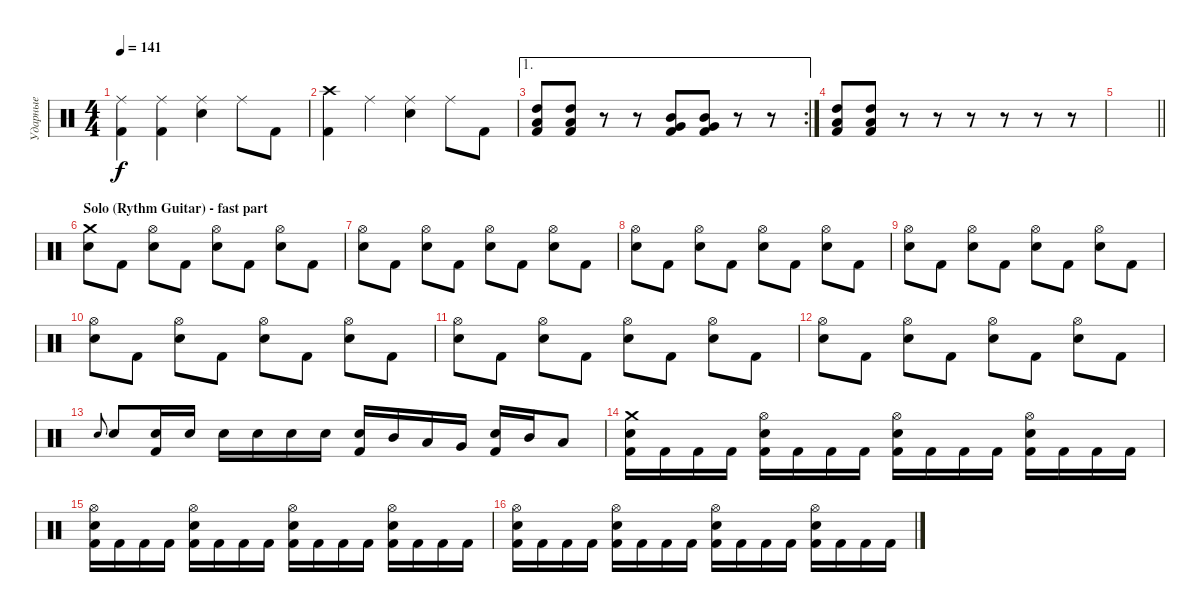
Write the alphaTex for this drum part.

\track ("Ударные" "Ударные") {instrument percussion}
\staff {score}
\articulation defaults
\ts (4 4)
\tempo 141
\clef neutral
\ks c
("Ride (middle)" "Kick (hit) 2").4{dy f} ("Ride (middle)" "Kick (hit) 2").4 ("Ride (middle)" "Electric Snare (hit)").4 "Ride (middle)".8 "Kick (hit) 2".8 |
("Crash high (hit)" "Kick (hit) 2").4 "Ride (middle)".4 ("Ride (middle)" "Electric Snare (hit)").4 "Ride (middle)".8 "Kick (hit) 2".8 |
\ae 1
\rc 2
("High Tom (hit)" "Low Tom (hit)" "Kick (hit) 2").8 ("High Tom (hit)" "Low Tom (hit)" "Kick (hit) 2").8 r.8 r.8 ("Mid Tom (hit)" "Very Low Tom (hit)" "Kick (hit) 2").8 ("Mid Tom (hit)" "Very Low Tom (hit)" "Kick (hit) 2").8 r.8 r.8 |
("High Tom (hit)" "Low Tom (hit)" "Kick (hit) 2").8 ("High Tom (hit)" "Low Tom (hit)" "Kick (hit) 2").8 r.8 r.8 r.8 r.8 r.8 r.8 |
\barLineRight lightlight
|
\section ("" "Solo (Rythm Guitar) - fast part")
("Crash medium (hit)" "Electric Snare (hit)").8 "Kick (hit) 2".8 ("Hi-Hat (open)" "Electric Snare (hit)").8 "Kick (hit) 2".8 ("Hi-Hat (open)" "Electric Snare (hit)").8 "Kick (hit) 2".8 ("Hi-Hat (open)" "Electric Snare (hit)").8 "Kick (hit) 2".8 |
("Hi-Hat (open)" "Electric Snare (hit)").8 "Kick (hit) 2".8 ("Hi-Hat (open)" "Electric Snare (hit)").8 "Kick (hit) 2".8 ("Hi-Hat (open)" "Electric Snare (hit)").8 "Kick (hit) 2".8 ("Hi-Hat (open)" "Electric Snare (hit)").8 "Kick (hit) 2".8 |
("Hi-Hat (open)" "Electric Snare (hit)").8 "Kick (hit) 2".8 ("Hi-Hat (open)" "Electric Snare (hit)").8 "Kick (hit) 2".8 ("Hi-Hat (open)" "Electric Snare (hit)").8 "Kick (hit) 2".8 ("Hi-Hat (open)" "Electric Snare (hit)").8 "Kick (hit) 2".8 |
("Hi-Hat (open)" "Electric Snare (hit)").8 "Kick (hit) 2".8 ("Hi-Hat (open)" "Electric Snare (hit)").8 "Kick (hit) 2".8 ("Hi-Hat (open)" "Electric Snare (hit)").8 "Kick (hit) 2".8 ("Hi-Hat (open)" "Electric Snare (hit)").8 "Kick (hit) 2".8 |
("Hi-Hat (open)" "Electric Snare (hit)").8 "Kick (hit) 2".8 ("Hi-Hat (open)" "Electric Snare (hit)").8 "Kick (hit) 2".8 ("Hi-Hat (open)" "Electric Snare (hit)").8 "Kick (hit) 2".8 ("Hi-Hat (open)" "Electric Snare (hit)").8 "Kick (hit) 2".8 |
("Hi-Hat (open)" "Electric Snare (hit)").8 "Kick (hit) 2".8 ("Hi-Hat (open)" "Electric Snare (hit)").8 "Kick (hit) 2".8 ("Hi-Hat (open)" "Electric Snare (hit)").8 "Kick (hit) 2".8 ("Hi-Hat (open)" "Electric Snare (hit)").8 "Kick (hit) 2".8 |
("Hi-Hat (open)" "Electric Snare (hit)").8 "Kick (hit) 2".8 ("Hi-Hat (open)" "Electric Snare (hit)").8 "Kick (hit) 2".8 ("Hi-Hat (open)" "Electric Snare (hit)").8 "Kick (hit) 2".8 ("Hi-Hat (open)" "Electric Snare (hit)").8 "Kick (hit) 2".8 |
"Electric Snare (hit)".8{gr onbeat} "Electric Snare (hit)".8 ("Electric Snare (hit)" "Kick (hit) 2").16 "Electric Snare (hit)".16 "Electric Snare (hit)".16 "Electric Snare (hit)".16 "Electric Snare (hit)".16 "Electric Snare (hit)".16 ("Electric Snare (hit)" "Kick (hit) 2").16 "Mid Tom (hit)".16 "Low Tom (hit)".16 "Very Low Tom (hit)".16 ("Electric Snare (hit)" "Kick (hit) 2").16 "Mid Tom (hit)".16 "Low Tom (hit)".8 |
("Crash medium (hit)" "Electric Snare (hit)" "Kick (hit) 2").16 "Kick (hit) 2".16 "Kick (hit) 2".16 "Kick (hit) 2".16 ("Hi-Hat (open)" "Electric Snare (hit)" "Kick (hit) 2").16 "Kick (hit) 2".16 "Kick (hit) 2".16 "Kick (hit) 2".16 ("Hi-Hat (open)" "Electric Snare (hit)" "Kick (hit) 2").16 "Kick (hit) 2".16 "Kick (hit) 2".16 "Kick (hit) 2".16 ("Hi-Hat (open)" "Electric Snare (hit)" "Kick (hit) 2").16 "Kick (hit) 2".16 "Kick (hit) 2".16 "Kick (hit) 2".16 |
("Hi-Hat (open)" "Electric Snare (hit)" "Kick (hit) 2").16 "Kick (hit) 2".16 "Kick (hit) 2".16 "Kick (hit) 2".16 ("Hi-Hat (open)" "Electric Snare (hit)" "Kick (hit) 2").16 "Kick (hit) 2".16 "Kick (hit) 2".16 "Kick (hit) 2".16 ("Hi-Hat (open)" "Electric Snare (hit)" "Kick (hit) 2").16 "Kick (hit) 2".16 "Kick (hit) 2".16 "Kick (hit) 2".16 ("Hi-Hat (open)" "Electric Snare (hit)" "Kick (hit) 2").16 "Kick (hit) 2".16 "Kick (hit) 2".16 "Kick (hit) 2".16 |
("Hi-Hat (open)" "Electric Snare (hit)" "Kick (hit) 2").16 "Kick (hit) 2".16 "Kick (hit) 2".16 "Kick (hit) 2".16 ("Hi-Hat (open)" "Electric Snare (hit)" "Kick (hit) 2").16 "Kick (hit) 2".16 "Kick (hit) 2".16 "Kick (hit) 2".16 ("Hi-Hat (open)" "Electric Snare (hit)" "Kick (hit) 2").16 "Kick (hit) 2".16 "Kick (hit) 2".16 "Kick (hit) 2".16 ("Hi-Hat (open)" "Electric Snare (hit)" "Kick (hit) 2").16 "Kick (hit) 2".16 "Kick (hit) 2".16 "Kick (hit) 2".16
